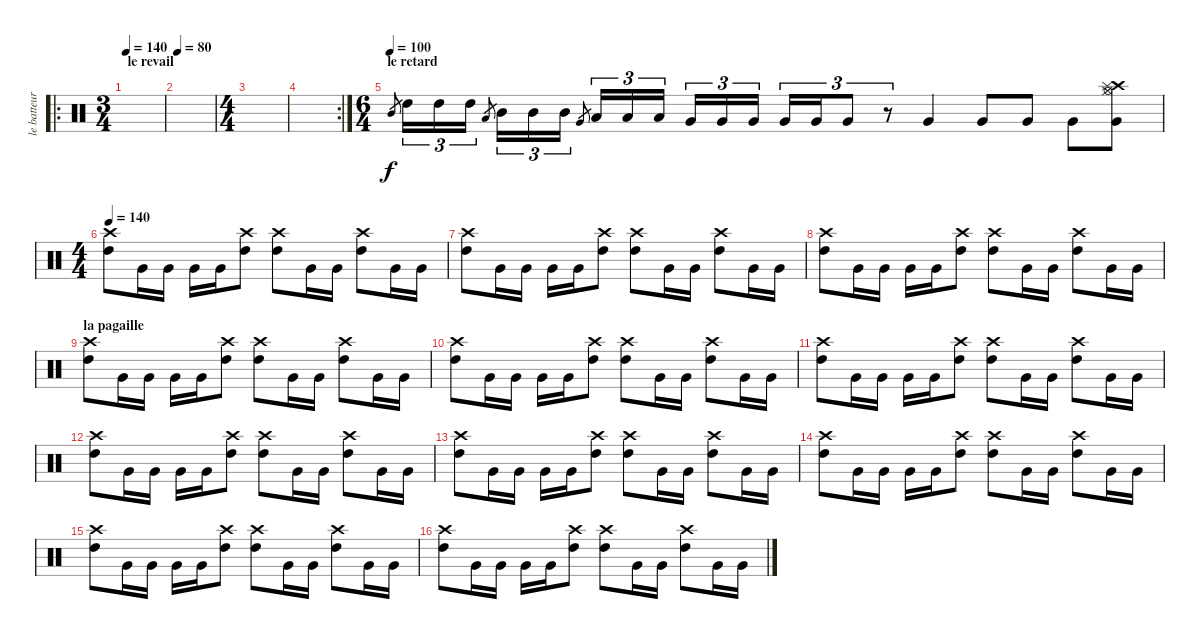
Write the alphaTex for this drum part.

\track ("le batteur" "le batteur") {instrument percussion}
\staff {score}
\articulation defaults
\ro
\ts (3 4)
\section ("" "le revail")
\tempo 140
\tempo 80
\tempo 140
\clef neutral
\ks c
|
\tempo 80
|
\ts (4 4)
|
\rc 2
|
\ts (6 4)
\section ("" "le retard")
\tempo (100)
"Mid Tom (hit)".8{gr} "High Tom (hit)".16{tu (3 2)} "High Tom (hit)".16{tu (3 2)} "High Tom (hit)".16{tu (3 2)} "Low Tom (hit)".8{gr} "Mid Tom (hit)".16{tu (3 2)} "Mid Tom (hit)".16{tu (3 2)} "Mid Tom (hit)".16{tu (3 2)} "Very Low Tom (hit)".8{gr} "Low Tom (hit)".16{tu (3 2)} "Low Tom (hit)".16{tu (3 2)} "Low Tom (hit)".16{tu (3 2)} "Very Low Tom (hit)".16{tu (3 2)} "Very Low Tom (hit)".16{tu (3 2)} "Very Low Tom (hit)".16{tu (3 2)} "Very Low Tom (hit)".16{tu (3 2)} "Very Low Tom (hit)".16{tu (3 2)} "Very Low Tom (hit)".8{tu (3 2)} r.8{tu (3 2)} "Very Low Tom (hit)".4 "Very Low Tom (hit)".8 "Very Low Tom (hit)".8 "Very Low Tom (hit)".8 ("Crash high (hit)" "Hi-Hat (closed)" "Hi-Hat (open)" "Very Low Tom (hit)" "Splash (hit)").8 |
\ts (4 4)
\tempo 140
("Crash high (hit)" "High Tom (hit)").8 "Very Low Tom (hit)".16 "Very Low Tom (hit)".16 "Very Low Tom (hit)".16 "Very Low Tom (hit)".16 ("Crash high (hit)" "High Tom (hit)").8 ("Crash high (hit)" "High Tom (hit)").8 "Very Low Tom (hit)".16 "Very Low Tom (hit)".16 ("Crash high (hit)" "High Tom (hit)").8 "Very Low Tom (hit)".16 "Very Low Tom (hit)".16 |
("Crash high (hit)" "High Tom (hit)").8 "Very Low Tom (hit)".16 "Very Low Tom (hit)".16 "Very Low Tom (hit)".16 "Very Low Tom (hit)".16 ("Crash high (hit)" "High Tom (hit)").8 ("Crash high (hit)" "High Tom (hit)").8 "Very Low Tom (hit)".16 "Very Low Tom (hit)".16 ("Crash high (hit)" "High Tom (hit)").8 "Very Low Tom (hit)".16 "Very Low Tom (hit)".16 |
("Crash high (hit)" "High Tom (hit)").8 "Very Low Tom (hit)".16 "Very Low Tom (hit)".16 "Very Low Tom (hit)".16 "Very Low Tom (hit)".16 ("Crash high (hit)" "High Tom (hit)").8 ("Crash high (hit)" "High Tom (hit)").8 "Very Low Tom (hit)".16 "Very Low Tom (hit)".16 ("Crash high (hit)" "High Tom (hit)").8 "Very Low Tom (hit)".16 "Very Low Tom (hit)".16 |
\section ("" "la pagaille")
("Crash high (hit)" "High Tom (hit)").8 "Very Low Tom (hit)".16 "Very Low Tom (hit)".16 "Very Low Tom (hit)".16 "Very Low Tom (hit)".16 ("Crash high (hit)" "High Tom (hit)").8 ("Crash high (hit)" "High Tom (hit)").8 "Very Low Tom (hit)".16 "Very Low Tom (hit)".16 ("Crash high (hit)" "High Tom (hit)").8 "Very Low Tom (hit)".16 "Very Low Tom (hit)".16 |
("Crash high (hit)" "High Tom (hit)").8 "Very Low Tom (hit)".16 "Very Low Tom (hit)".16 "Very Low Tom (hit)".16 "Very Low Tom (hit)".16 ("Crash high (hit)" "High Tom (hit)").8 ("Crash high (hit)" "High Tom (hit)").8 "Very Low Tom (hit)".16 "Very Low Tom (hit)".16 ("Crash high (hit)" "High Tom (hit)").8 "Very Low Tom (hit)".16 "Very Low Tom (hit)".16 |
("Crash high (hit)" "High Tom (hit)").8 "Very Low Tom (hit)".16 "Very Low Tom (hit)".16 "Very Low Tom (hit)".16 "Very Low Tom (hit)".16 ("Crash high (hit)" "High Tom (hit)").8 ("Crash high (hit)" "High Tom (hit)").8 "Very Low Tom (hit)".16 "Very Low Tom (hit)".16 ("Crash high (hit)" "High Tom (hit)").8 "Very Low Tom (hit)".16 "Very Low Tom (hit)".16 |
("Crash high (hit)" "High Tom (hit)").8 "Very Low Tom (hit)".16 "Very Low Tom (hit)".16 "Very Low Tom (hit)".16 "Very Low Tom (hit)".16 ("Crash high (hit)" "High Tom (hit)").8 ("Crash high (hit)" "High Tom (hit)").8 "Very Low Tom (hit)".16 "Very Low Tom (hit)".16 ("Crash high (hit)" "High Tom (hit)").8 "Very Low Tom (hit)".16 "Very Low Tom (hit)".16 |
("Crash high (hit)" "High Tom (hit)").8 "Very Low Tom (hit)".16 "Very Low Tom (hit)".16 "Very Low Tom (hit)".16 "Very Low Tom (hit)".16 ("Crash high (hit)" "High Tom (hit)").8 ("Crash high (hit)" "High Tom (hit)").8 "Very Low Tom (hit)".16 "Very Low Tom (hit)".16 ("Crash high (hit)" "High Tom (hit)").8 "Very Low Tom (hit)".16 "Very Low Tom (hit)".16 |
("Crash high (hit)" "High Tom (hit)").8 "Very Low Tom (hit)".16 "Very Low Tom (hit)".16 "Very Low Tom (hit)".16 "Very Low Tom (hit)".16 ("Crash high (hit)" "High Tom (hit)").8 ("Crash high (hit)" "High Tom (hit)").8 "Very Low Tom (hit)".16 "Very Low Tom (hit)".16 ("Crash high (hit)" "High Tom (hit)").8 "Very Low Tom (hit)".16 "Very Low Tom (hit)".16 |
("Crash high (hit)" "High Tom (hit)").8 "Very Low Tom (hit)".16 "Very Low Tom (hit)".16 "Very Low Tom (hit)".16 "Very Low Tom (hit)".16 ("Crash high (hit)" "High Tom (hit)").8 ("Crash high (hit)" "High Tom (hit)").8 "Very Low Tom (hit)".16 "Very Low Tom (hit)".16 ("Crash high (hit)" "High Tom (hit)").8 "Very Low Tom (hit)".16 "Very Low Tom (hit)".16 |
("Crash high (hit)" "High Tom (hit)").8 "Very Low Tom (hit)".16 "Very Low Tom (hit)".16 "Very Low Tom (hit)".16 "Very Low Tom (hit)".16 ("Crash high (hit)" "High Tom (hit)").8 ("Crash high (hit)" "High Tom (hit)").8 "Very Low Tom (hit)".16 "Very Low Tom (hit)".16 ("Crash high (hit)" "High Tom (hit)").8 "Very Low Tom (hit)".16 "Very Low Tom (hit)".16
